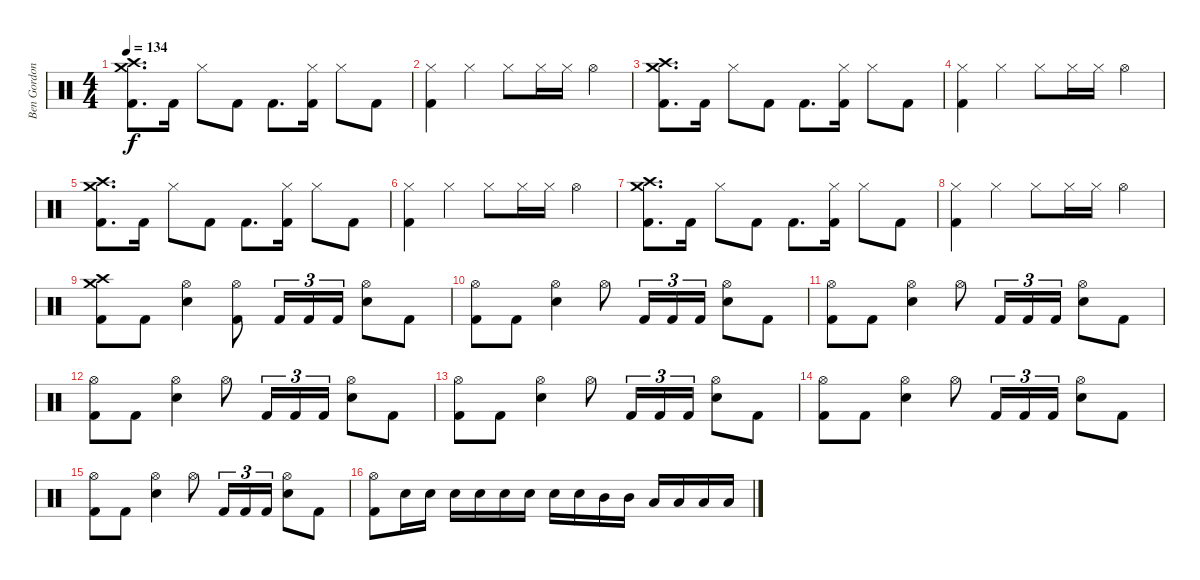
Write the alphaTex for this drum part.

\track ("Ben Gordon" "Ben Gordon") {instrument percussion}
\staff {score}
\articulation defaults
\ts (4 4)
\tempo 134
\clef neutral
\ks c
("Crash medium (hit)" "Crash high (hit)" "Kick (hit) 2").8{d dy f} "Kick (hit) 2".16 "Hi-Hat (closed)".8 "Kick (hit) 2".8 "Kick (hit) 2".8{d} ("Hi-Hat (closed)" "Kick (hit) 2").16 "Hi-Hat (closed)".8 "Kick (hit) 2".8 |
("Hi-Hat (closed)" "Kick (hit) 2").4 "Hi-Hat (closed)".4 "Hi-Hat (closed)".8 "Hi-Hat (closed)".16 "Hi-Hat (closed)".16 "Hi-Hat (open)".4 |
("Crash medium (hit)" "Crash high (hit)" "Kick (hit) 2").8{d} "Kick (hit) 2".16 "Hi-Hat (closed)".8 "Kick (hit) 2".8 "Kick (hit) 2".8{d} ("Hi-Hat (closed)" "Kick (hit) 2").16 "Hi-Hat (closed)".8 "Kick (hit) 2".8 |
("Hi-Hat (closed)" "Kick (hit) 2").4 "Hi-Hat (closed)".4 "Hi-Hat (closed)".8 "Hi-Hat (closed)".16 "Hi-Hat (closed)".16 "Hi-Hat (open)".4 |
("Crash medium (hit)" "Crash high (hit)" "Kick (hit) 2").8{d} "Kick (hit) 2".16 "Hi-Hat (closed)".8 "Kick (hit) 2".8 "Kick (hit) 2".8{d} ("Hi-Hat (closed)" "Kick (hit) 2").16 "Hi-Hat (closed)".8 "Kick (hit) 2".8 |
("Hi-Hat (closed)" "Kick (hit) 2").4 "Hi-Hat (closed)".4 "Hi-Hat (closed)".8 "Hi-Hat (closed)".16 "Hi-Hat (closed)".16 "Hi-Hat (open)".4 |
("Crash medium (hit)" "Crash high (hit)" "Kick (hit) 2").8{d} "Kick (hit) 2".16 "Hi-Hat (closed)".8 "Kick (hit) 2".8 "Kick (hit) 2".8{d} ("Hi-Hat (closed)" "Kick (hit) 2").16 "Hi-Hat (closed)".8 "Kick (hit) 2".8 |
("Hi-Hat (closed)" "Kick (hit) 2").4 "Hi-Hat (closed)".4 "Hi-Hat (closed)".8 "Hi-Hat (closed)".16 "Hi-Hat (closed)".16 "Hi-Hat (open)".4 |
("Crash medium (hit)" "Crash high (hit)" "Kick (hit) 2").8 "Kick (hit) 2".8 ("Hi-Hat (open)" "Electric Snare (hit)").4 ("Hi-Hat (open)" "Kick (hit) 2").8 "Kick (hit) 2".16{tu (3 2)} "Kick (hit) 2".16{tu (3 2)} "Kick (hit) 2".16{tu (3 2)} ("Hi-Hat (open)" "Electric Snare (hit)").8 "Kick (hit) 2".8 |
("Hi-Hat (open)" "Kick (hit) 2").8 "Kick (hit) 2".8 ("Hi-Hat (open)" "Electric Snare (hit)").4 "Hi-Hat (open)".8 "Kick (hit) 2".16{tu (3 2)} "Kick (hit) 2".16{tu (3 2)} "Kick (hit) 2".16{tu (3 2)} ("Hi-Hat (open)" "Electric Snare (hit)").8 "Kick (hit) 2".8 |
("Hi-Hat (open)" "Kick (hit) 2").8 "Kick (hit) 2".8 ("Hi-Hat (open)" "Electric Snare (hit)").4 "Hi-Hat (open)".8 "Kick (hit) 2".16{tu (3 2)} "Kick (hit) 2".16{tu (3 2)} "Kick (hit) 2".16{tu (3 2)} ("Hi-Hat (open)" "Electric Snare (hit)").8 "Kick (hit) 2".8 |
("Hi-Hat (open)" "Kick (hit) 2").8 "Kick (hit) 2".8 ("Hi-Hat (open)" "Electric Snare (hit)").4 "Hi-Hat (open)".8 "Kick (hit) 2".16{tu (3 2)} "Kick (hit) 2".16{tu (3 2)} "Kick (hit) 2".16{tu (3 2)} ("Hi-Hat (open)" "Electric Snare (hit)").8 "Kick (hit) 2".8 |
("Hi-Hat (open)" "Kick (hit) 2").8 "Kick (hit) 2".8 ("Hi-Hat (open)" "Electric Snare (hit)").4 "Hi-Hat (open)".8 "Kick (hit) 2".16{tu (3 2)} "Kick (hit) 2".16{tu (3 2)} "Kick (hit) 2".16{tu (3 2)} ("Hi-Hat (open)" "Electric Snare (hit)").8 "Kick (hit) 2".8 |
("Hi-Hat (open)" "Kick (hit) 2").8 "Kick (hit) 2".8 ("Hi-Hat (open)" "Electric Snare (hit)").4 "Hi-Hat (open)".8 "Kick (hit) 2".16{tu (3 2)} "Kick (hit) 2".16{tu (3 2)} "Kick (hit) 2".16{tu (3 2)} ("Hi-Hat (open)" "Electric Snare (hit)").8 "Kick (hit) 2".8 |
("Hi-Hat (open)" "Kick (hit) 2").8 "Kick (hit) 2".8 ("Hi-Hat (open)" "Electric Snare (hit)").4 "Hi-Hat (open)".8 "Kick (hit) 2".16{tu (3 2)} "Kick (hit) 2".16{tu (3 2)} "Kick (hit) 2".16{tu (3 2)} ("Hi-Hat (open)" "Electric Snare (hit)").8 "Kick (hit) 2".8 |
("Hi-Hat (open)" "Kick (hit) 2").8 "Electric Snare (hit)".16 "Electric Snare (hit)".16 "Electric Snare (hit)".16 "Electric Snare (hit)".16 "Electric Snare (hit)".16 "Electric Snare (hit)".16 "Electric Snare (hit)".16 "Electric Snare (hit)".16 "Mid Tom (hit)".16 "Mid Tom (hit)".16 "Low Tom (hit)".16 "Low Tom (hit)".16 "Low Floor Tom (hit)".16 "Low Floor Tom (hit)".16
